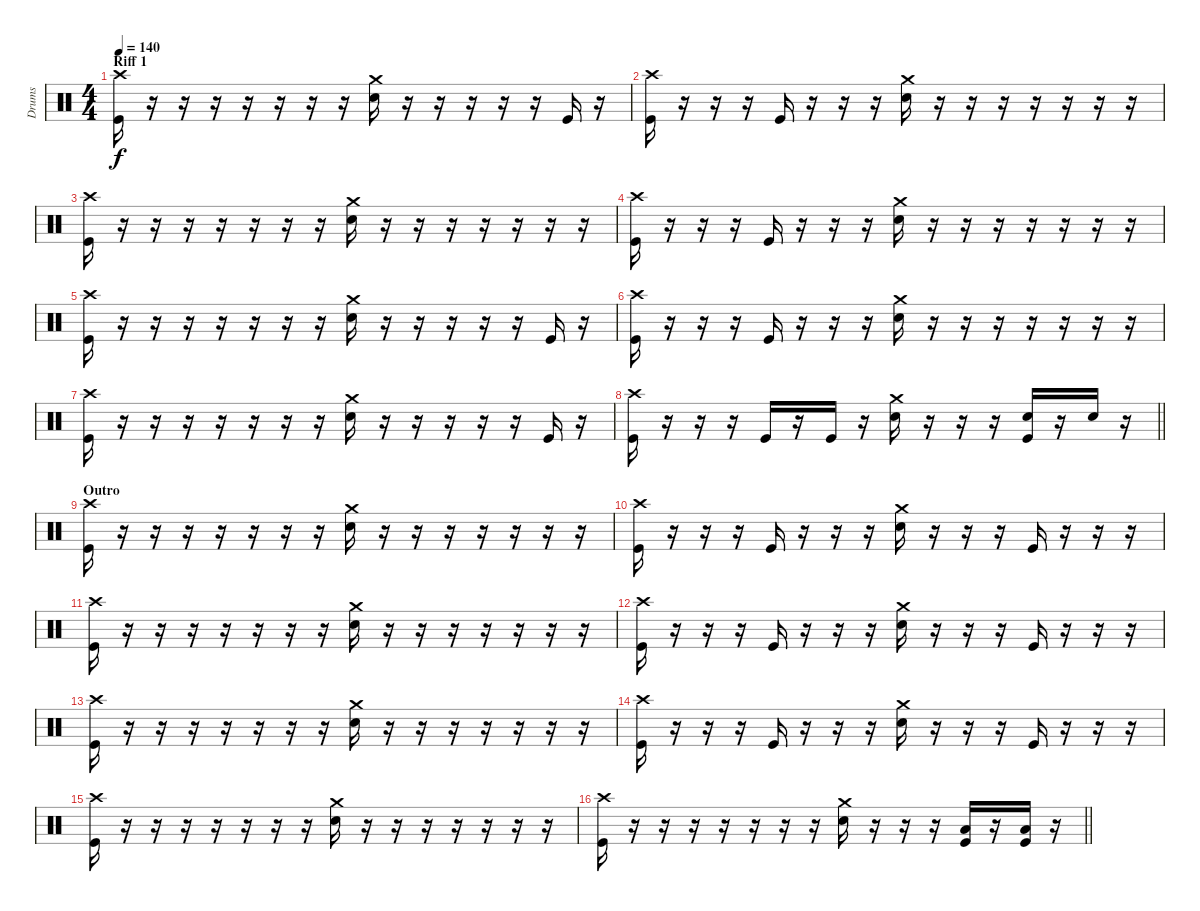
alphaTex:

\track ("Drums" "Drums") {instrument percussion}
\staff {score}
\articulation defaults
\ts (4 4)
\section ("" "Riff 1")
\tempo 140
\clef neutral
\ks c
("Crash high (hit)" "Kick (hit)").16{dy f} r.16 r.16 r.16 r.16 r.16 r.16 r.16 ("Crash medium (hit)" "Electric Snare (hit)").16 r.16 r.16 r.16 r.16 r.16 "Kick (hit)".16 r.16 |
("Crash high (hit)" "Kick (hit)").16 r.16 r.16 r.16 "Kick (hit)".16 r.16 r.16 r.16 ("Crash medium (hit)" "Electric Snare (hit)").16 r.16 r.16 r.16 r.16 r.16 r.16 r.16 |
("Crash high (hit)" "Kick (hit)").16 r.16 r.16 r.16 r.16 r.16 r.16 r.16 ("Crash medium (hit)" "Electric Snare (hit)").16 r.16 r.16 r.16 r.16 r.16 r.16 r.16 |
("Crash high (hit)" "Kick (hit)").16 r.16 r.16 r.16 "Kick (hit)".16 r.16 r.16 r.16 ("Crash medium (hit)" "Electric Snare (hit)").16 r.16 r.16 r.16 r.16 r.16 r.16 r.16 |
("Crash high (hit)" "Kick (hit)").16 r.16 r.16 r.16 r.16 r.16 r.16 r.16 ("Crash medium (hit)" "Electric Snare (hit)").16 r.16 r.16 r.16 r.16 r.16 "Kick (hit)".16 r.16 |
("Crash high (hit)" "Kick (hit)").16 r.16 r.16 r.16 "Kick (hit)".16 r.16 r.16 r.16 ("Crash medium (hit)" "Electric Snare (hit)").16 r.16 r.16 r.16 r.16 r.16 r.16 r.16 |
("Crash high (hit)" "Kick (hit)").16 r.16 r.16 r.16 r.16 r.16 r.16 r.16 ("Crash medium (hit)" "Electric Snare (hit)").16 r.16 r.16 r.16 r.16 r.16 "Kick (hit)".16 r.16 |
\barLineRight lightlight
("Crash high (hit)" "Kick (hit)").16 r.16 r.16 r.16 "Kick (hit)".16 r.16 "Kick (hit)".16 r.16 ("Crash medium (hit)" "Electric Snare (hit)").16 r.16 r.16 r.16 ("Electric Snare (hit)" "Kick (hit)").16 r.16 "Electric Snare (hit)".16 r.16 |
\section ("" "Outro")
("Crash high (hit)" "Kick (hit)").16 r.16 r.16 r.16 r.16 r.16 r.16 r.16 ("Crash medium (hit)" "Electric Snare (hit)").16 r.16 r.16 r.16 r.16 r.16 r.16 r.16 |
("Crash high (hit)" "Kick (hit)").16 r.16 r.16 r.16 "Kick (hit)".16 r.16 r.16 r.16 ("Crash medium (hit)" "Electric Snare (hit)").16 r.16 r.16 r.16 "Kick (hit)".16 r.16 r.16 r.16 |
("Crash high (hit)" "Kick (hit)").16 r.16 r.16 r.16 r.16 r.16 r.16 r.16 ("Crash medium (hit)" "Electric Snare (hit)").16 r.16 r.16 r.16 r.16 r.16 r.16 r.16 |
("Crash high (hit)" "Kick (hit)").16 r.16 r.16 r.16 "Kick (hit)".16 r.16 r.16 r.16 ("Crash medium (hit)" "Electric Snare (hit)").16 r.16 r.16 r.16 "Kick (hit)".16 r.16 r.16 r.16 |
("Crash high (hit)" "Kick (hit)").16 r.16 r.16 r.16 r.16 r.16 r.16 r.16 ("Crash medium (hit)" "Electric Snare (hit)").16 r.16 r.16 r.16 r.16 r.16 r.16 r.16 |
("Crash high (hit)" "Kick (hit)").16 r.16 r.16 r.16 "Kick (hit)".16 r.16 r.16 r.16 ("Crash medium (hit)" "Electric Snare (hit)").16 r.16 r.16 r.16 "Kick (hit)".16 r.16 r.16 r.16 |
("Crash high (hit)" "Kick (hit)").16 r.16 r.16 r.16 r.16 r.16 r.16 r.16 ("Crash medium (hit)" "Electric Snare (hit)").16 r.16 r.16 r.16 r.16 r.16 r.16 r.16 |
\barLineRight lightlight
("Crash high (hit)" "Kick (hit)").16 r.16 r.16 r.16 r.16 r.16 r.16 r.16 ("Crash medium (hit)" "Electric Snare (hit)").16 r.16 r.16 r.16 ("Low Tom (hit)" "Kick (hit)").16 r.16 ("Low Tom (hit)" "Kick (hit)").16 r.16
